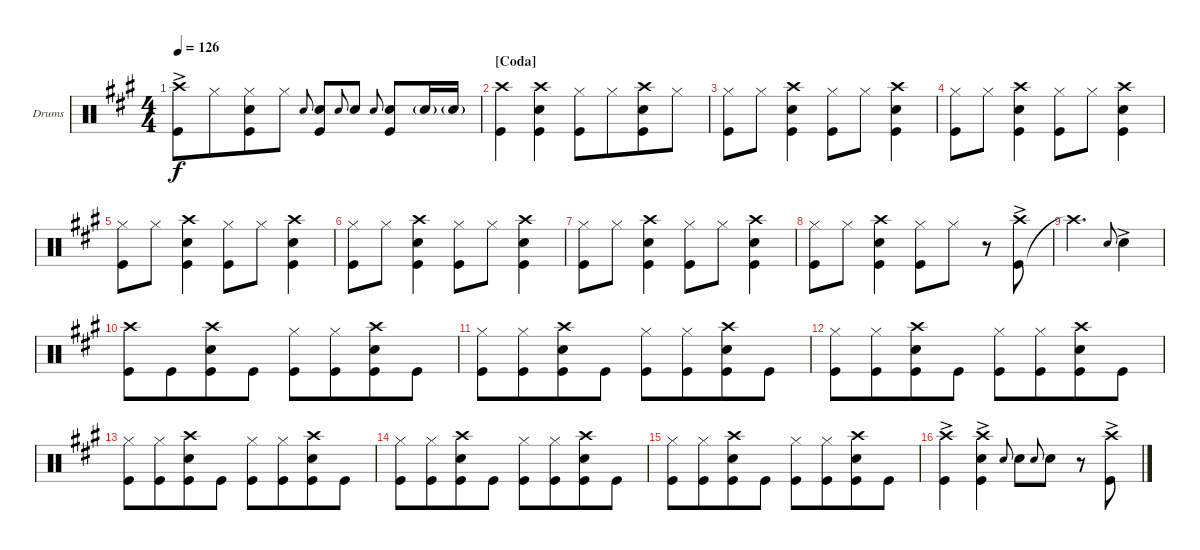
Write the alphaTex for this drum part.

\defaultSystemsLayout 4
\bracketExtendMode groupsimilarinstruments
\firstSystemTrackNameOrientation horizontal
\otherSystemsTrackNameOrientation horizontal
\track ("Drums" "Drums") {instrument percussion}
\staff {score}
\articulation defaults
\ts (4 4)
\tempo 126
\clef neutral
\ks a
("Crash high (hit)"{ac} "Kick (hit)").8{dy f} "Hi-Hat (closed)".8{beam merge} ("Snare (hit) 2" "Hi-Hat (closed)" "Kick (hit)").8 "Hi-Hat (closed)".8 "Snare (hit) 2".8{gr onbeat} ("Snare (hit) 2" "Kick (hit)").8 "Snare (hit) 2".8{gr onbeat} "Snare (hit) 2".8 "Snare (hit) 2".8{gr onbeat} ("Snare (hit) 2" "Kick (hit)").8 "Snare (hit) 2"{g}.16 "Snare (hit) 2"{g}.16 |
\section ("" "[Coda]")
("Kick (hit)" "Crash high (hit)").4 ("Kick (hit)" "Snare (hit) 2" "Crash high (hit)").4 ("Kick (hit)" "Hi-Hat (closed)").8 "Hi-Hat (closed)".8{beam merge} ("Kick (hit)" "Snare (hit) 2" "Crash high (hit)").8 "Hi-Hat (closed)".8 |
("Kick (hit)" "Hi-Hat (closed)").8 "Hi-Hat (closed)".8 ("Kick (hit)" "Snare (hit) 2" "Crash high (hit)").4 ("Kick (hit)" "Hi-Hat (closed)").8 "Hi-Hat (closed)".8 ("Kick (hit)" "Snare (hit) 2" "Crash high (hit)").4 |
("Kick (hit)" "Hi-Hat (closed)").8 "Hi-Hat (closed)".8 ("Kick (hit)" "Snare (hit) 2" "Crash high (hit)").4 ("Kick (hit)" "Hi-Hat (closed)").8 "Hi-Hat (closed)".8 ("Kick (hit)" "Snare (hit) 2" "Crash high (hit)").4 |
("Kick (hit)" "Hi-Hat (closed)").8 "Hi-Hat (closed)".8 ("Kick (hit)" "Snare (hit) 2" "Crash high (hit)").4 ("Kick (hit)" "Hi-Hat (closed)").8 "Hi-Hat (closed)".8 ("Kick (hit)" "Snare (hit) 2" "Crash high (hit)").4 |
("Kick (hit)" "Hi-Hat (closed)").8 "Hi-Hat (closed)".8 ("Kick (hit)" "Snare (hit) 2" "Crash high (hit)").4 ("Kick (hit)" "Hi-Hat (closed)").8 "Hi-Hat (closed)".8 ("Kick (hit)" "Snare (hit) 2" "Crash high (hit)").4 |
("Kick (hit)" "Hi-Hat (closed)").8 "Hi-Hat (closed)".8 ("Kick (hit)" "Snare (hit) 2" "Crash high (hit)").4 ("Kick (hit)" "Hi-Hat (closed)").8 "Hi-Hat (closed)".8 ("Kick (hit)" "Snare (hit) 2" "Crash high (hit)").4 |
("Kick (hit)" "Hi-Hat (closed)").8 "Hi-Hat (closed)".8 ("Kick (hit)" "Snare (hit) 2" "Crash high (hit)").4 ("Kick (hit)" "Hi-Hat (closed)").8 "Hi-Hat (closed)".8 r.8 ("Kick (hit)" "Crash high (hit)"{ac}).8 |
"Crash high (hit)"{t}.2{d} "Snare (hit) 2".8{gr onbeat} "Snare (hit) 2"{ac}.4 |
("Kick (hit)" "Crash high (hit)").8 "Kick (hit)".8{beam merge} ("Kick (hit)" "Snare (hit) 2" "Crash high (hit)").8 "Kick (hit)".8 ("Kick (hit)" "Hi-Hat (closed)").8 ("Hi-Hat (closed)" "Kick (hit)").8{beam merge} ("Kick (hit)" "Snare (hit) 2" "Crash high (hit)").8 "Kick (hit)".8 |
("Kick (hit)" "Hi-Hat (closed)").8 ("Hi-Hat (closed)" "Kick (hit)").8{beam merge} ("Kick (hit)" "Snare (hit) 2" "Crash high (hit)").8 "Kick (hit)".8 ("Kick (hit)" "Hi-Hat (closed)").8 ("Hi-Hat (closed)" "Kick (hit)").8{beam merge} ("Kick (hit)" "Snare (hit) 2" "Crash high (hit)").8 "Kick (hit)".8 |
("Kick (hit)" "Hi-Hat (closed)").8 ("Hi-Hat (closed)" "Kick (hit)").8{beam merge} ("Kick (hit)" "Snare (hit) 2" "Crash high (hit)").8 "Kick (hit)".8 ("Kick (hit)" "Hi-Hat (closed)").8 ("Hi-Hat (closed)" "Kick (hit)").8{beam merge} ("Kick (hit)" "Snare (hit) 2" "Crash high (hit)").8 "Kick (hit)".8 |
("Kick (hit)" "Hi-Hat (closed)").8 ("Hi-Hat (closed)" "Kick (hit)").8{beam merge} ("Kick (hit)" "Snare (hit) 2" "Crash high (hit)").8 "Kick (hit)".8 ("Kick (hit)" "Hi-Hat (closed)").8 ("Hi-Hat (closed)" "Kick (hit)").8{beam merge} ("Kick (hit)" "Snare (hit) 2" "Crash high (hit)").8 "Kick (hit)".8 |
("Kick (hit)" "Hi-Hat (closed)").8 ("Hi-Hat (closed)" "Kick (hit)").8{beam merge} ("Kick (hit)" "Snare (hit) 2" "Crash high (hit)").8 "Kick (hit)".8 ("Kick (hit)" "Hi-Hat (closed)").8 ("Hi-Hat (closed)" "Kick (hit)").8{beam merge} ("Kick (hit)" "Snare (hit) 2" "Crash high (hit)").8 "Kick (hit)".8 |
("Kick (hit)" "Hi-Hat (closed)").8 ("Hi-Hat (closed)" "Kick (hit)").8{beam merge} ("Kick (hit)" "Snare (hit) 2" "Crash high (hit)").8 "Kick (hit)".8 ("Kick (hit)" "Hi-Hat (closed)").8 ("Hi-Hat (closed)" "Kick (hit)").8{beam merge} ("Kick (hit)" "Snare (hit) 2" "Crash high (hit)").8 "Kick (hit)".8 |
("Kick (hit)" "Crash high (hit)"{ac}).4 ("Kick (hit)" "Snare (hit) 2" "Crash high (hit)"{ac}).4 "Snare (hit) 2".8{gr onbeat} "Snare (hit) 2".8 "Snare (hit) 2".8{gr onbeat} "Snare (hit) 2".8 r.8 ("Kick (hit)" "Crash high (hit)"{ac}).8
